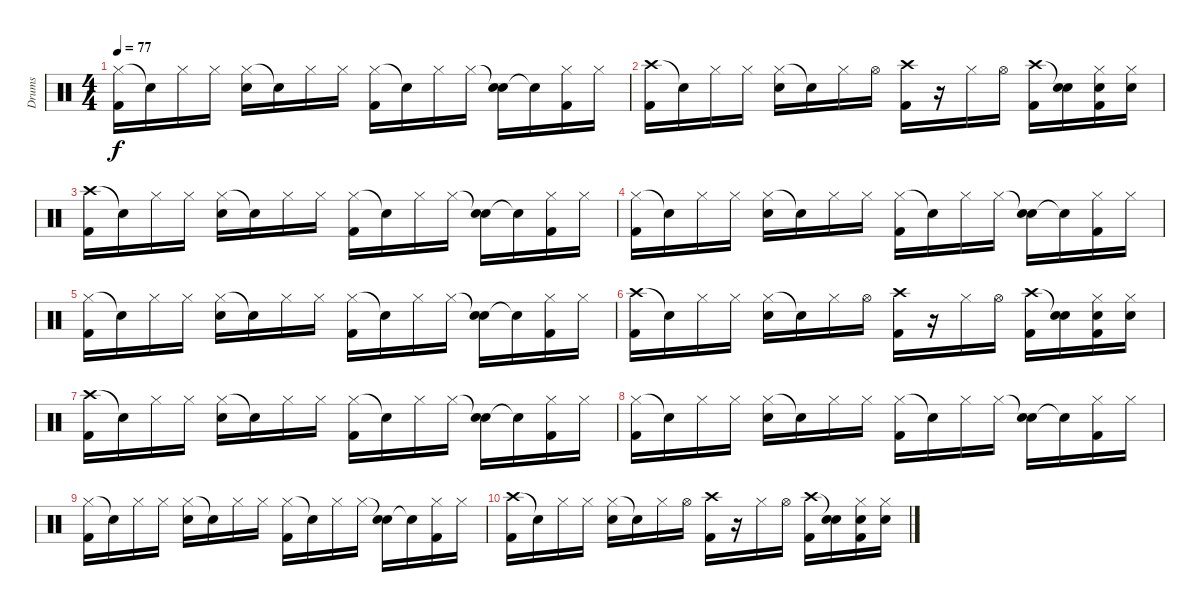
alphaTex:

\track ("Drums" "Drums") {instrument percussion}
\staff {score}
\articulation defaults
\ts (4 4)
\tempo 77
\clef neutral
\ks c
("Hi-Hat (closed)" "Kick (hit) 2").16{dy f} "Snare (hit)"{t}.16 "Hi-Hat (closed)".16 "Hi-Hat (closed)".16 ("Hi-Hat (closed)" "Electric Snare (hit)").16 "Snare (hit)"{t}.16 "Hi-Hat (closed)".16 "Hi-Hat (closed)".16 ("Hi-Hat (closed)" "Kick (hit) 2").16 "Snare (hit)"{t}.16 "Hi-Hat (closed)".16 "Hi-Hat (closed)".16 ("Snare (hit)"{t} "Electric Snare (hit)").16 "Snare (hit)"{t}.16 ("Hi-Hat (closed)" "Kick (hit) 2").16 "Hi-Hat (closed)".16 |
("Crash high (hit)" "Kick (hit) 2").16 "Snare (hit)"{t}.16 "Hi-Hat (closed)".16 "Hi-Hat (closed)".16 ("Hi-Hat (closed)" "Electric Snare (hit)").16 "Snare (hit)"{t}.16 "Hi-Hat (closed)".16 "Hi-Hat (open)".16 ("Crash high (hit)" "Kick (hit) 2").16 r.16 "Hi-Hat (closed)".16 "Hi-Hat (open)".16 ("Crash high (hit)" "Kick (hit) 2").16 ("Snare (hit)"{t} "Electric Snare (hit)").16 ("Hi-Hat (closed)" "Electric Snare (hit)" "Kick (hit) 2").16 ("Hi-Hat (closed)" "Electric Snare (hit)").16 |
("Crash high (hit)" "Kick (hit) 2").16 "Snare (hit)"{t}.16 "Hi-Hat (closed)".16 "Hi-Hat (closed)".16 ("Hi-Hat (closed)" "Electric Snare (hit)").16 "Snare (hit)"{t}.16 "Hi-Hat (closed)".16 "Hi-Hat (closed)".16 ("Hi-Hat (closed)" "Kick (hit) 2").16 "Snare (hit)"{t}.16 "Hi-Hat (closed)".16 "Hi-Hat (closed)".16 ("Snare (hit)"{t} "Electric Snare (hit)").16 "Snare (hit)"{t}.16 ("Hi-Hat (closed)" "Kick (hit) 2").16 "Hi-Hat (closed)".16 |
("Hi-Hat (closed)" "Kick (hit) 2").16 "Snare (hit)"{t}.16 "Hi-Hat (closed)".16 "Hi-Hat (closed)".16 ("Hi-Hat (closed)" "Electric Snare (hit)").16 "Snare (hit)"{t}.16 "Hi-Hat (closed)".16 "Hi-Hat (closed)".16 ("Hi-Hat (closed)" "Kick (hit) 2").16 "Snare (hit)"{t}.16 "Hi-Hat (closed)".16 "Hi-Hat (closed)".16 ("Snare (hit)"{t} "Electric Snare (hit)").16 "Snare (hit)"{t}.16 ("Hi-Hat (closed)" "Kick (hit) 2").16 "Hi-Hat (closed)".16 |
("Hi-Hat (closed)" "Kick (hit) 2").16 "Snare (hit)"{t}.16 "Hi-Hat (closed)".16 "Hi-Hat (closed)".16 ("Hi-Hat (closed)" "Electric Snare (hit)").16 "Snare (hit)"{t}.16 "Hi-Hat (closed)".16 "Hi-Hat (closed)".16 ("Hi-Hat (closed)" "Kick (hit) 2").16 "Snare (hit)"{t}.16 "Hi-Hat (closed)".16 "Hi-Hat (closed)".16 ("Snare (hit)"{t} "Electric Snare (hit)").16 "Snare (hit)"{t}.16 ("Hi-Hat (closed)" "Kick (hit) 2").16 "Hi-Hat (closed)".16 |
("Crash high (hit)" "Kick (hit) 2").16 "Snare (hit)"{t}.16 "Hi-Hat (closed)".16 "Hi-Hat (closed)".16 ("Hi-Hat (closed)" "Electric Snare (hit)").16 "Snare (hit)"{t}.16 "Hi-Hat (closed)".16 "Hi-Hat (open)".16 ("Crash high (hit)" "Kick (hit) 2").16 r.16 "Hi-Hat (closed)".16 "Hi-Hat (open)".16 ("Crash high (hit)" "Kick (hit) 2").16 ("Snare (hit)"{t} "Electric Snare (hit)").16 ("Hi-Hat (closed)" "Electric Snare (hit)" "Kick (hit) 2").16 ("Hi-Hat (closed)" "Electric Snare (hit)").16 |
("Crash high (hit)" "Kick (hit) 2").16 "Snare (hit)"{t}.16 "Hi-Hat (closed)".16 "Hi-Hat (closed)".16 ("Hi-Hat (closed)" "Electric Snare (hit)").16 "Snare (hit)"{t}.16 "Hi-Hat (closed)".16 "Hi-Hat (closed)".16 ("Hi-Hat (closed)" "Kick (hit) 2").16 "Snare (hit)"{t}.16 "Hi-Hat (closed)".16 "Hi-Hat (closed)".16 ("Snare (hit)"{t} "Electric Snare (hit)").16 "Snare (hit)"{t}.16 ("Hi-Hat (closed)" "Kick (hit) 2").16 "Hi-Hat (closed)".16 |
("Hi-Hat (closed)" "Kick (hit) 2").16 "Snare (hit)"{t}.16 "Hi-Hat (closed)".16 "Hi-Hat (closed)".16 ("Hi-Hat (closed)" "Electric Snare (hit)").16 "Snare (hit)"{t}.16 "Hi-Hat (closed)".16 "Hi-Hat (closed)".16 ("Hi-Hat (closed)" "Kick (hit) 2").16 "Snare (hit)"{t}.16 "Hi-Hat (closed)".16 "Hi-Hat (closed)".16 ("Snare (hit)"{t} "Electric Snare (hit)").16 "Snare (hit)"{t}.16 ("Hi-Hat (closed)" "Kick (hit) 2").16 "Hi-Hat (closed)".16 |
("Hi-Hat (closed)" "Kick (hit) 2").16 "Snare (hit)"{t}.16 "Hi-Hat (closed)".16 "Hi-Hat (closed)".16 ("Hi-Hat (closed)" "Electric Snare (hit)").16 "Snare (hit)"{t}.16 "Hi-Hat (closed)".16 "Hi-Hat (closed)".16 ("Hi-Hat (closed)" "Kick (hit) 2").16 "Snare (hit)"{t}.16 "Hi-Hat (closed)".16 "Hi-Hat (closed)".16 ("Snare (hit)"{t} "Electric Snare (hit)").16 "Snare (hit)"{t}.16 ("Hi-Hat (closed)" "Kick (hit) 2").16 "Hi-Hat (closed)".16 |
("Crash high (hit)" "Kick (hit) 2").16 "Snare (hit)"{t}.16 "Hi-Hat (closed)".16 "Hi-Hat (closed)".16 ("Hi-Hat (closed)" "Electric Snare (hit)").16 "Snare (hit)"{t}.16 "Hi-Hat (closed)".16 "Hi-Hat (open)".16 ("Crash high (hit)" "Kick (hit) 2").16 r.16 "Hi-Hat (closed)".16 "Hi-Hat (open)".16 ("Crash high (hit)" "Kick (hit) 2").16 ("Snare (hit)"{t} "Electric Snare (hit)").16 ("Hi-Hat (closed)" "Electric Snare (hit)" "Kick (hit) 2").16 ("Hi-Hat (closed)" "Electric Snare (hit)").16
